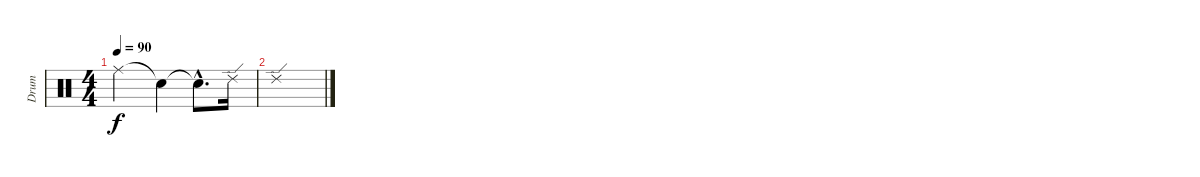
\track ("Drum" "Drum") {instrument percussion}
\staff {score}
\articulation defaults
\ts (4 4)
\tempo 90
\clef neutral
\ks c "Ride (middle)".2{dy f} "Snare (hit)"{t}.4 "Snare (hit)"{hac t}.8{d} "Ride (edge) 2".16
|
"Ride (edge) 2".1
